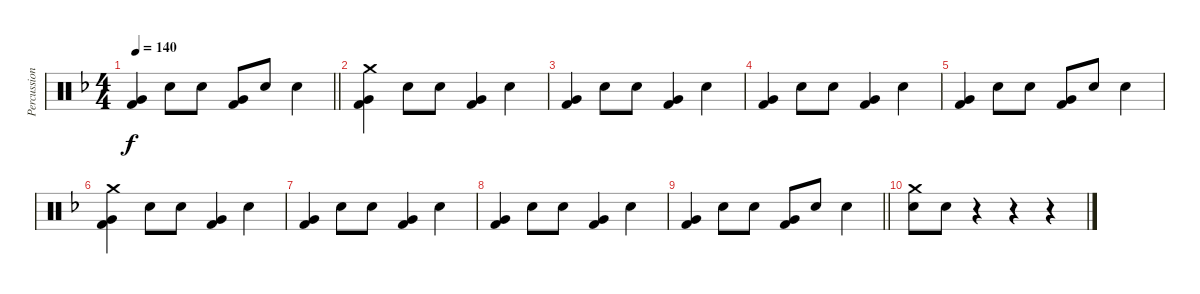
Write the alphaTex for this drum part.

\track ("Percussion" "Percussion") {instrument percussion}
\staff {score}
\articulation defaults
\ts (4 4)
\tempo 140
\clef neutral
\barLineRight lightlight
\ks dminor
("Very Low Tom (hit)" "Kick (hit) 2").4{dy f} "Snare (hit) 2".8 "Snare (hit) 2".8 ("Very Low Tom (hit)" "Kick (hit) 2").8 "Snare (hit) 2".8 "Snare (hit) 2".4 |
("Crash medium (hit)" "Very Low Tom (hit)" "Kick (hit) 2").4 "Snare (hit) 2".8 "Snare (hit) 2".8 ("Very Low Tom (hit)" "Kick (hit) 2").4 "Snare (hit) 2".4 |
("Very Low Tom (hit)" "Kick (hit) 2").4 "Snare (hit) 2".8 "Snare (hit) 2".8 ("Very Low Tom (hit)" "Kick (hit) 2").4 "Snare (hit) 2".4 |
("Very Low Tom (hit)" "Kick (hit) 2").4 "Snare (hit) 2".8 "Snare (hit) 2".8 ("Very Low Tom (hit)" "Kick (hit) 2").4 "Snare (hit) 2".4 |
("Very Low Tom (hit)" "Kick (hit) 2").4 "Snare (hit) 2".8 "Snare (hit) 2".8 ("Very Low Tom (hit)" "Kick (hit) 2").8 "Snare (hit) 2".8 "Snare (hit) 2".4 |
("Crash medium (hit)" "Very Low Tom (hit)" "Kick (hit) 2").4 "Snare (hit) 2".8 "Snare (hit) 2".8 ("Very Low Tom (hit)" "Kick (hit) 2").4 "Snare (hit) 2".4 |
("Very Low Tom (hit)" "Kick (hit) 2").4 "Snare (hit) 2".8 "Snare (hit) 2".8 ("Very Low Tom (hit)" "Kick (hit) 2").4 "Snare (hit) 2".4 |
("Very Low Tom (hit)" "Kick (hit) 2").4 "Snare (hit) 2".8 "Snare (hit) 2".8 ("Very Low Tom (hit)" "Kick (hit) 2").4 "Snare (hit) 2".4 |
\barLineRight lightlight
("Very Low Tom (hit)" "Kick (hit) 2").4 "Snare (hit) 2".8 "Snare (hit) 2".8 ("Very Low Tom (hit)" "Kick (hit) 2").8 "Snare (hit) 2".8 "Snare (hit) 2".4 |
("Crash medium (hit)" "Snare (hit) 2").8 "Snare (hit) 2".8 r.4 r.4 r.4
